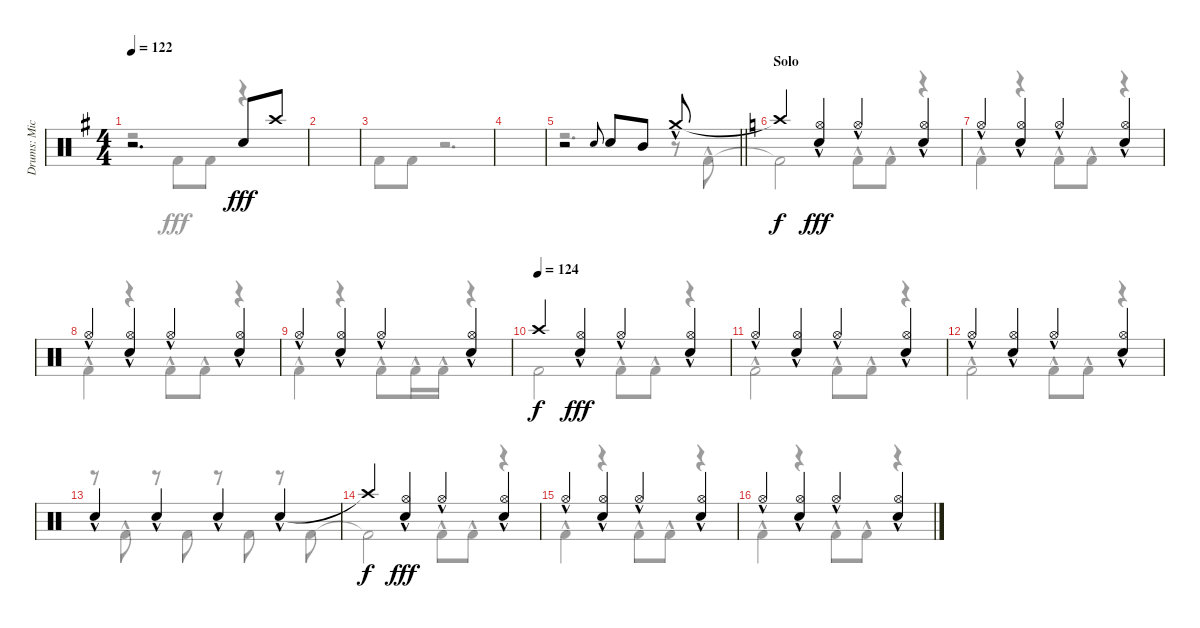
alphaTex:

\track ("Drums: Mick" "Drums: Mic") {instrument percussion}
\staff {score}
\articulation defaults
\voice
\ts (4 4)
\tempo 122
\clef neutral
\ks g
r.2{d dy fff beam merge} "Snare (hit) 2".8 "Crash high (hit)".8 |
|
|
|
\barLineRight lightlight
r.2 "Electric Snare (hit)".8{gr onbeat} "Snare (hit) 2".8{beam merge} "Mid Tom (hit)".8 "Crash medium (hit)"{hac}.8 |
\section ("" "Solo")
\ks c "Crash high (hit)"{t}.4{dy f}
("Hi-Hat (open)"{hac} "Snare (hit) 2"{hac}).4{dy fff} "Hi-Hat (open)"{hac}.4 ("Hi-Hat (open)"{hac} "Snare (hit) 2"{hac}).4 |
"Hi-Hat (open)"{hac}.4 ("Hi-Hat (open)"{hac} "Snare (hit) 2"{hac}).4 "Hi-Hat (open)"{hac}.4 ("Hi-Hat (open)"{hac} "Snare (hit) 2"{hac}).4 |
"Hi-Hat (open)"{hac}.4 ("Hi-Hat (open)"{hac} "Snare (hit) 2"{hac}).4 "Hi-Hat (open)"{hac}.4 ("Hi-Hat (open)"{hac} "Snare (hit) 2"{hac}).4 |
"Hi-Hat (open)"{hac}.4 ("Hi-Hat (open)"{hac} "Snare (hit) 2"{hac}).4 "Hi-Hat (open)"{hac}.4 ("Hi-Hat (open)"{hac} "Snare (hit) 2"{hac}).4 |
\tempo (124)
"Crash high (hit)".4{dy f} ("Hi-Hat (open)"{hac} "Snare (hit) 2"{hac}).4{dy fff} "Hi-Hat (open)"{hac}.4 ("Hi-Hat (open)"{hac} "Snare (hit) 2"{hac}).4 |
"Hi-Hat (open)"{hac}.4 ("Hi-Hat (open)"{hac} "Snare (hit) 2"{hac}).4 "Hi-Hat (open)"{hac}.4 ("Hi-Hat (open)"{hac} "Snare (hit) 2"{hac}).4 |
"Hi-Hat (open)"{hac}.4 ("Hi-Hat (open)"{hac} "Snare (hit) 2"{hac}).4 "Hi-Hat (open)"{hac}.4 ("Hi-Hat (open)"{hac} "Snare (hit) 2"{hac}).4 |
"Snare (hit) 2"{hac}.4 "Snare (hit) 2"{hac}.4 "Snare (hit) 2"{hac}.4 "Snare (hit) 2"{hac}.4 |
"Crash high (hit)"{t}.4{dy f} ("Hi-Hat (open)"{hac} "Snare (hit) 2"{hac}).4{dy fff} "Hi-Hat (open)"{hac}.4 ("Hi-Hat (open)"{hac} "Snare (hit) 2"{hac}).4 |
"Hi-Hat (open)"{hac}.4 ("Hi-Hat (open)"{hac} "Snare (hit) 2"{hac}).4 "Hi-Hat (open)"{hac}.4 ("Hi-Hat (open)"{hac} "Snare (hit) 2"{hac}).4 |
"Hi-Hat (open)"{hac}.4 ("Hi-Hat (open)"{hac} "Snare (hit) 2"{hac}).4 "Hi-Hat (open)"{hac}.4 ("Hi-Hat (open)"{hac} "Snare (hit) 2"{hac}).4
\voice
\clef neutral
\ottava regular
\simile none
\ks g
r.2{dy fff} "Kick (hit) 2".8 "Kick (hit) 2".8{beam merge} r.4 |
|
"Kick (hit) 2".8 "Kick (hit) 2".8 r.2{d} |
|
\barLineRight lightlight
r.2{d} r.8 "Kick (hit) 2"{hac}.8 |
\ks c "Kick (hit) 2"{t}.2 "Kick (hit) 2"{hac}.8 "Kick (hit) 2"{hac}.8
r.4 |
"Kick (hit) 2"{hac}.4 r.4 "Kick (hit) 2"{hac}.8 "Kick (hit) 2"{hac}.8 r.4 |
"Kick (hit) 2"{hac}.4 r.4 "Kick (hit) 2"{hac}.8 "Kick (hit) 2"{hac}.8 r.4 |
"Kick (hit) 2"{hac}.4 r.4 "Kick (hit) 2"{hac}.8 "Kick (hit) 2"{hac}.16 "Kick (hit) 2"{hac}.16 r.4 |
"Kick (hit) 2".2 "Kick (hit) 2"{hac}.8 "Kick (hit) 2"{hac}.8 r.4 |
"Kick (hit) 2"{hac}.2 "Kick (hit) 2"{hac}.8 "Kick (hit) 2"{hac}.8 r.4 |
"Kick (hit) 2"{hac}.2 "Kick (hit) 2"{hac}.8 "Kick (hit) 2"{hac}.8 r.4 |
r.8 "Kick (hit) 2"{hac}.8 r.8 "Kick (hit) 2".8 r.8 "Kick (hit) 2".8 r.8 "Kick (hit) 2".8 |
"Kick (hit) 2"{t}.2 "Kick (hit) 2"{hac}.8 "Kick (hit) 2"{hac}.8 r.4 |
"Kick (hit) 2"{hac}.4 r.4 "Kick (hit) 2"{hac}.8 "Kick (hit) 2"{hac}.8 r.4 |
"Kick (hit) 2"{hac}.4 r.4 "Kick (hit) 2"{hac}.8 "Kick (hit) 2"{hac}.8 r.4
